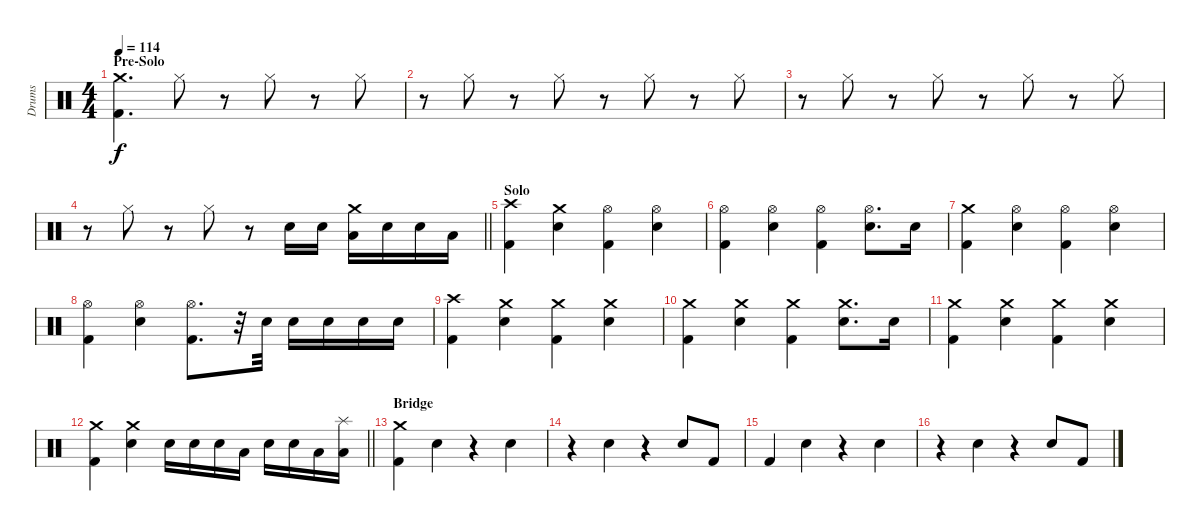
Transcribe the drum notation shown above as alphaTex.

\track ("Drums" "Drums") {instrument percussion}
\staff {score}
\articulation defaults
\ts (4 4)
\section ("" "Pre-Solo")
\tempo 114
\clef neutral
\ks c
("Crash medium (hit)" "Kick (hit) 2").4{d dy f} "Hi-Hat (closed)".8 r.8 "Hi-Hat (closed)".8 r.8 "Hi-Hat (closed)".8 |
r.8 "Hi-Hat (closed)".8 r.8 "Hi-Hat (closed)".8 r.8 "Hi-Hat (closed)".8 r.8 "Hi-Hat (closed)".8 |
r.8 "Hi-Hat (closed)".8 r.8 "Hi-Hat (closed)".8 r.8 "Hi-Hat (closed)".8 r.8 "Hi-Hat (closed)".8 |
\barLineRight lightlight
r.8 "Hi-Hat (closed)".8 r.8 "Hi-Hat (closed)".8 r.8 "Snare (hit) 2".16 "Snare (hit) 2".16 ("Crash medium (hit)" "Low Tom (hit)").16 "Snare (hit) 2".16 "Snare (hit) 2".16 "Low Tom (hit)".16 |
\section ("" "Solo")
("Crash high (hit)" "Kick (hit) 2").4 ("Crash medium (hit)" "Snare (hit) 2").4 ("Hi-Hat (open)" "Kick (hit) 2").4 ("Hi-Hat (open)" "Snare (hit) 2").4 |
("Hi-Hat (open)" "Kick (hit) 2").4 ("Hi-Hat (open)" "Snare (hit) 2").4 ("Hi-Hat (open)" "Kick (hit) 2").4 ("Hi-Hat (open)" "Snare (hit) 2").8{d} "Snare (hit) 2".16 |
("Crash medium (hit)" "Kick (hit) 2").4 ("Hi-Hat (open)" "Snare (hit) 2").4 ("Hi-Hat (open)" "Kick (hit) 2").4 ("Hi-Hat (open)" "Snare (hit) 2").4 |
("Hi-Hat (open)" "Kick (hit) 2").4 ("Hi-Hat (open)" "Snare (hit) 2").4 ("Hi-Hat (open)" "Kick (hit) 2").8{d} r.32 "Snare (hit) 2".32 "Snare (hit) 2".16 "Snare (hit) 2".16 "Snare (hit) 2".16 "Snare (hit) 2".16 |
("Crash high (hit)" "Kick (hit) 2").4 ("Crash medium (hit)" "Snare (hit) 2").4 ("Crash medium (hit)" "Kick (hit) 2").4 ("Crash medium (hit)" "Snare (hit) 2").4 |
("Crash medium (hit)" "Kick (hit) 2").4 ("Crash medium (hit)" "Snare (hit) 2").4 ("Crash medium (hit)" "Kick (hit) 2").4 ("Crash medium (hit)" "Snare (hit) 2").8{d} "Snare (hit) 2".16 |
("Crash medium (hit)" "Kick (hit) 2").4 ("Crash medium (hit)" "Snare (hit) 2").4 ("Crash medium (hit)" "Kick (hit) 2").4 ("Crash medium (hit)" "Snare (hit) 2").4 |
\barLineRight lightlight
("Crash medium (hit)" "Kick (hit) 2").4 ("Crash medium (hit)" "Snare (hit) 2").4 "Snare (hit) 2".16 "Snare (hit) 2".16 "Snare (hit) 2".16 "Low Tom (hit)".16 "Snare (hit) 2".16 "Snare (hit) 2".16 "Low Tom (hit)".16 ("Splash (hit)" "Low Tom (hit)").16 |
\section ("" "Bridge")
("Crash medium (hit)" "Kick (hit) 2").4 "Snare (hit) 2".4 r.4 "Snare (hit) 2".4 |
r.4 "Snare (hit) 2".4 r.4 "Snare (hit) 2".8 "Kick (hit) 2".8 |
"Kick (hit) 2".4 "Snare (hit) 2".4 r.4 "Snare (hit) 2".4 |
r.4 "Snare (hit) 2".4 r.4 "Snare (hit) 2".8 "Kick (hit) 2".8
